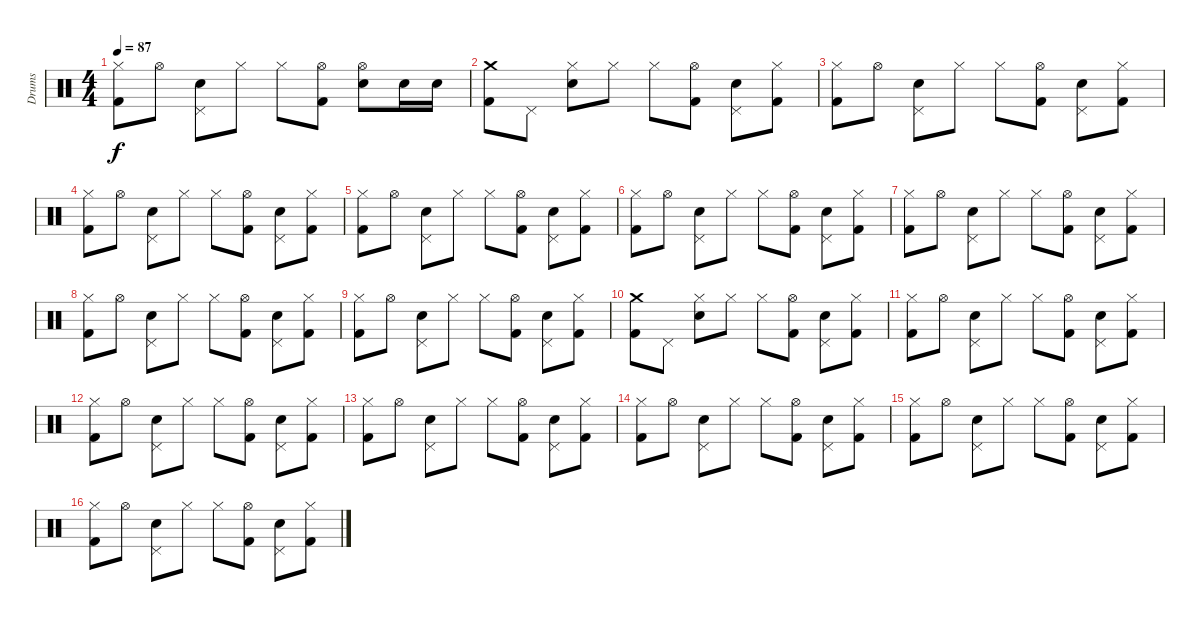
\track ("Drums" "Drums") {instrument percussion}
\staff {score}
\articulation defaults
\ts (4 4)
\tempo 87
\clef neutral
\ks c
("Hi-Hat (closed)" "Kick (hit) 2").8{dy f} "Hi-Hat (open)".8 ("Pedal Hi-Hat (hit)" "Electric Snare (hit)").8 "Hi-Hat (closed)".8 "Hi-Hat (closed)".8 ("Hi-Hat (open)" "Kick (hit) 2").8 ("Hi-Hat (open)" "Electric Snare (hit)").8 "Electric Snare (hit)".16 "Electric Snare (hit)".16 |
("Crash medium (hit)" "Kick (hit) 2").8 "Pedal Hi-Hat (hit)".8 ("Hi-Hat (closed)" "Electric Snare (hit)").8 "Hi-Hat (closed)".8 "Hi-Hat (closed)".8 ("Hi-Hat (open)" "Kick (hit) 2").8 ("Pedal Hi-Hat (hit)" "Electric Snare (hit)").8 ("Hi-Hat (closed)" "Kick (hit) 2").8 |
("Hi-Hat (closed)" "Kick (hit) 2").8 "Hi-Hat (open)".8 ("Pedal Hi-Hat (hit)" "Electric Snare (hit)").8 "Hi-Hat (closed)".8 "Hi-Hat (closed)".8 ("Hi-Hat (open)" "Kick (hit) 2").8 ("Pedal Hi-Hat (hit)" "Electric Snare (hit)").8 ("Hi-Hat (closed)" "Kick (hit) 2").8 |
("Hi-Hat (closed)" "Kick (hit) 2").8 "Hi-Hat (open)".8 ("Pedal Hi-Hat (hit)" "Electric Snare (hit)").8 "Hi-Hat (closed)".8 "Hi-Hat (closed)".8 ("Hi-Hat (open)" "Kick (hit) 2").8 ("Pedal Hi-Hat (hit)" "Electric Snare (hit)").8 ("Hi-Hat (closed)" "Kick (hit) 2").8 |
("Hi-Hat (closed)" "Kick (hit) 2").8 "Hi-Hat (open)".8 ("Pedal Hi-Hat (hit)" "Electric Snare (hit)").8 "Hi-Hat (closed)".8 "Hi-Hat (closed)".8 ("Hi-Hat (open)" "Kick (hit) 2").8 ("Pedal Hi-Hat (hit)" "Electric Snare (hit)").8 ("Hi-Hat (closed)" "Kick (hit) 2").8 |
("Hi-Hat (closed)" "Kick (hit) 2").8 "Hi-Hat (open)".8 ("Pedal Hi-Hat (hit)" "Electric Snare (hit)").8 "Hi-Hat (closed)".8 "Hi-Hat (closed)".8 ("Hi-Hat (open)" "Kick (hit) 2").8 ("Pedal Hi-Hat (hit)" "Electric Snare (hit)").8 ("Hi-Hat (closed)" "Kick (hit) 2").8 |
("Hi-Hat (closed)" "Kick (hit) 2").8 "Hi-Hat (open)".8 ("Pedal Hi-Hat (hit)" "Electric Snare (hit)").8 "Hi-Hat (closed)".8 "Hi-Hat (closed)".8 ("Hi-Hat (open)" "Kick (hit) 2").8 ("Pedal Hi-Hat (hit)" "Electric Snare (hit)").8 ("Hi-Hat (closed)" "Kick (hit) 2").8 |
("Hi-Hat (closed)" "Kick (hit) 2").8 "Hi-Hat (open)".8 ("Pedal Hi-Hat (hit)" "Electric Snare (hit)").8 "Hi-Hat (closed)".8 "Hi-Hat (closed)".8 ("Hi-Hat (open)" "Kick (hit) 2").8 ("Pedal Hi-Hat (hit)" "Electric Snare (hit)").8 ("Hi-Hat (closed)" "Kick (hit) 2").8 |
("Hi-Hat (closed)" "Kick (hit) 2").8 "Hi-Hat (open)".8 ("Pedal Hi-Hat (hit)" "Electric Snare (hit)").8 "Hi-Hat (closed)".8 "Hi-Hat (closed)".8 ("Hi-Hat (open)" "Kick (hit) 2").8 ("Pedal Hi-Hat (hit)" "Electric Snare (hit)").8 ("Hi-Hat (closed)" "Kick (hit) 2").8 |
("Crash medium (hit)" "Kick (hit) 2").8 "Pedal Hi-Hat (hit)".8 ("Hi-Hat (closed)" "Electric Snare (hit)").8 "Hi-Hat (closed)".8 "Hi-Hat (closed)".8 ("Hi-Hat (open)" "Kick (hit) 2").8 ("Pedal Hi-Hat (hit)" "Electric Snare (hit)").8 ("Hi-Hat (closed)" "Kick (hit) 2").8 |
("Hi-Hat (closed)" "Kick (hit) 2").8 "Hi-Hat (open)".8 ("Pedal Hi-Hat (hit)" "Electric Snare (hit)").8 "Hi-Hat (closed)".8 "Hi-Hat (closed)".8 ("Hi-Hat (open)" "Kick (hit) 2").8 ("Pedal Hi-Hat (hit)" "Electric Snare (hit)").8 ("Hi-Hat (closed)" "Kick (hit) 2").8 |
("Hi-Hat (closed)" "Kick (hit) 2").8 "Hi-Hat (open)".8 ("Pedal Hi-Hat (hit)" "Electric Snare (hit)").8 "Hi-Hat (closed)".8 "Hi-Hat (closed)".8 ("Hi-Hat (open)" "Kick (hit) 2").8 ("Pedal Hi-Hat (hit)" "Electric Snare (hit)").8 ("Hi-Hat (closed)" "Kick (hit) 2").8 |
("Hi-Hat (closed)" "Kick (hit) 2").8 "Hi-Hat (open)".8 ("Pedal Hi-Hat (hit)" "Electric Snare (hit)").8 "Hi-Hat (closed)".8 "Hi-Hat (closed)".8 ("Hi-Hat (open)" "Kick (hit) 2").8 ("Pedal Hi-Hat (hit)" "Electric Snare (hit)").8 ("Hi-Hat (closed)" "Kick (hit) 2").8 |
("Hi-Hat (closed)" "Kick (hit) 2").8 "Hi-Hat (open)".8 ("Pedal Hi-Hat (hit)" "Electric Snare (hit)").8 "Hi-Hat (closed)".8 "Hi-Hat (closed)".8 ("Hi-Hat (open)" "Kick (hit) 2").8 ("Pedal Hi-Hat (hit)" "Electric Snare (hit)").8 ("Hi-Hat (closed)" "Kick (hit) 2").8 |
("Hi-Hat (closed)" "Kick (hit) 2").8 "Hi-Hat (open)".8 ("Pedal Hi-Hat (hit)" "Electric Snare (hit)").8 "Hi-Hat (closed)".8 "Hi-Hat (closed)".8 ("Hi-Hat (open)" "Kick (hit) 2").8 ("Pedal Hi-Hat (hit)" "Electric Snare (hit)").8 ("Hi-Hat (closed)" "Kick (hit) 2").8 |
("Hi-Hat (closed)" "Kick (hit) 2").8 "Hi-Hat (open)".8 ("Pedal Hi-Hat (hit)" "Electric Snare (hit)").8 "Hi-Hat (closed)".8 "Hi-Hat (closed)".8 ("Hi-Hat (open)" "Kick (hit) 2").8 ("Pedal Hi-Hat (hit)" "Electric Snare (hit)").8 ("Hi-Hat (closed)" "Kick (hit) 2").8
